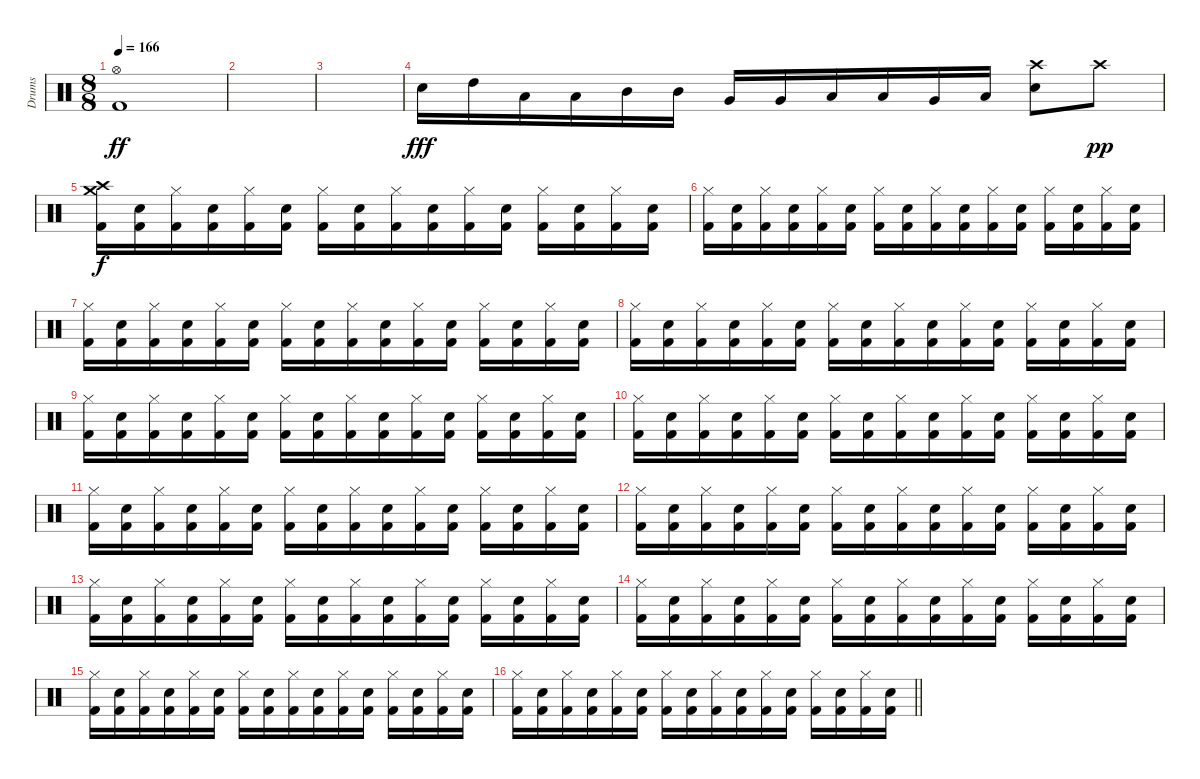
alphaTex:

\track ("Drums" "Drums") {instrument percussion}
\staff {score}
\articulation defaults
\ts (8 8)
\section ("" "")
\tempo 166
\clef neutral
\ks c
("Hi-Hat (open)" "Kick (hit) 2").1{dy ff} |
|
|
"Electric Snare (hit)".16{dy fff} "High Tom (hit)".16 "Low Tom (hit)".16 "Low Tom (hit)".16 "Mid Tom (hit)".16 "Mid Tom (hit)".16 "Very Low Tom (hit)".16 "Very Low Tom (hit)".16 "Low Tom (hit)".16 "Low Tom (hit)".16 "Very Low Tom (hit)".16 "Low Floor Tom (hit)".16 ("Crash high (hit)" "Electric Snare (hit)").8 "Crash high (hit)".8{dy pp} |
("Crash high (hit)" "Crash medium (hit)" "Kick (hit) 2").16{dy f} ("Electric Snare (hit)" "Kick (hit) 2").16 ("Hi-Hat (closed)" "Kick (hit) 2").16 ("Electric Snare (hit)" "Kick (hit) 2").16 ("Hi-Hat (closed)" "Kick (hit) 2").16 ("Electric Snare (hit)" "Kick (hit) 2").16 ("Hi-Hat (closed)" "Kick (hit) 2").16 ("Electric Snare (hit)" "Kick (hit) 2").16 ("Hi-Hat (closed)" "Kick (hit) 2").16 ("Electric Snare (hit)" "Kick (hit) 2").16 ("Hi-Hat (closed)" "Kick (hit) 2").16 ("Electric Snare (hit)" "Kick (hit) 2").16 ("Hi-Hat (closed)" "Kick (hit) 2").16 ("Electric Snare (hit)" "Kick (hit) 2").16 ("Hi-Hat (closed)" "Kick (hit) 2").16 ("Electric Snare (hit)" "Kick (hit) 2").16 |
("Hi-Hat (closed)" "Kick (hit) 2").16 ("Electric Snare (hit)" "Kick (hit) 2").16 ("Hi-Hat (closed)" "Kick (hit) 2").16 ("Electric Snare (hit)" "Kick (hit) 2").16 ("Hi-Hat (closed)" "Kick (hit) 2").16 ("Electric Snare (hit)" "Kick (hit) 2").16 ("Hi-Hat (closed)" "Kick (hit) 2").16 ("Electric Snare (hit)" "Kick (hit) 2").16 ("Hi-Hat (closed)" "Kick (hit) 2").16 ("Electric Snare (hit)" "Kick (hit) 2").16 ("Hi-Hat (closed)" "Kick (hit) 2").16 ("Electric Snare (hit)" "Kick (hit) 2").16 ("Hi-Hat (closed)" "Kick (hit) 2").16 ("Electric Snare (hit)" "Kick (hit) 2").16 ("Hi-Hat (closed)" "Kick (hit) 2").16 ("Electric Snare (hit)" "Kick (hit) 2").16 |
("Hi-Hat (closed)" "Kick (hit) 2").16 ("Electric Snare (hit)" "Kick (hit) 2").16 ("Hi-Hat (closed)" "Kick (hit) 2").16 ("Electric Snare (hit)" "Kick (hit) 2").16 ("Hi-Hat (closed)" "Kick (hit) 2").16 ("Electric Snare (hit)" "Kick (hit) 2").16 ("Hi-Hat (closed)" "Kick (hit) 2").16 ("Electric Snare (hit)" "Kick (hit) 2").16 ("Hi-Hat (closed)" "Kick (hit) 2").16 ("Electric Snare (hit)" "Kick (hit) 2").16 ("Hi-Hat (closed)" "Kick (hit) 2").16 ("Electric Snare (hit)" "Kick (hit) 2").16 ("Hi-Hat (closed)" "Kick (hit) 2").16 ("Electric Snare (hit)" "Kick (hit) 2").16 ("Hi-Hat (closed)" "Kick (hit) 2").16 ("Electric Snare (hit)" "Kick (hit) 2").16 |
("Hi-Hat (closed)" "Kick (hit) 2").16 ("Electric Snare (hit)" "Kick (hit) 2").16 ("Hi-Hat (closed)" "Kick (hit) 2").16 ("Electric Snare (hit)" "Kick (hit) 2").16 ("Hi-Hat (closed)" "Kick (hit) 2").16 ("Electric Snare (hit)" "Kick (hit) 2").16 ("Hi-Hat (closed)" "Kick (hit) 2").16 ("Electric Snare (hit)" "Kick (hit) 2").16 ("Hi-Hat (closed)" "Kick (hit) 2").16 ("Electric Snare (hit)" "Kick (hit) 2").16 ("Hi-Hat (closed)" "Kick (hit) 2").16 ("Electric Snare (hit)" "Kick (hit) 2").16 ("Hi-Hat (closed)" "Kick (hit) 2").16 ("Electric Snare (hit)" "Kick (hit) 2").16 ("Hi-Hat (closed)" "Kick (hit) 2").16 ("Electric Snare (hit)" "Kick (hit) 2").16 |
("Hi-Hat (closed)" "Kick (hit) 2").16 ("Electric Snare (hit)" "Kick (hit) 2").16 ("Hi-Hat (closed)" "Kick (hit) 2").16 ("Electric Snare (hit)" "Kick (hit) 2").16 ("Hi-Hat (closed)" "Kick (hit) 2").16 ("Electric Snare (hit)" "Kick (hit) 2").16 ("Hi-Hat (closed)" "Kick (hit) 2").16 ("Electric Snare (hit)" "Kick (hit) 2").16 ("Hi-Hat (closed)" "Kick (hit) 2").16 ("Electric Snare (hit)" "Kick (hit) 2").16 ("Hi-Hat (closed)" "Kick (hit) 2").16 ("Electric Snare (hit)" "Kick (hit) 2").16 ("Hi-Hat (closed)" "Kick (hit) 2").16 ("Electric Snare (hit)" "Kick (hit) 2").16 ("Hi-Hat (closed)" "Kick (hit) 2").16 ("Electric Snare (hit)" "Kick (hit) 2").16 |
("Hi-Hat (closed)" "Kick (hit) 2").16 ("Electric Snare (hit)" "Kick (hit) 2").16 ("Hi-Hat (closed)" "Kick (hit) 2").16 ("Electric Snare (hit)" "Kick (hit) 2").16 ("Hi-Hat (closed)" "Kick (hit) 2").16 ("Electric Snare (hit)" "Kick (hit) 2").16 ("Hi-Hat (closed)" "Kick (hit) 2").16 ("Electric Snare (hit)" "Kick (hit) 2").16 ("Hi-Hat (closed)" "Kick (hit) 2").16 ("Electric Snare (hit)" "Kick (hit) 2").16 ("Hi-Hat (closed)" "Kick (hit) 2").16 ("Electric Snare (hit)" "Kick (hit) 2").16 ("Hi-Hat (closed)" "Kick (hit) 2").16 ("Electric Snare (hit)" "Kick (hit) 2").16 ("Hi-Hat (closed)" "Kick (hit) 2").16 ("Electric Snare (hit)" "Kick (hit) 2").16 |
("Hi-Hat (closed)" "Kick (hit) 2").16 ("Electric Snare (hit)" "Kick (hit) 2").16 ("Hi-Hat (closed)" "Kick (hit) 2").16 ("Electric Snare (hit)" "Kick (hit) 2").16 ("Hi-Hat (closed)" "Kick (hit) 2").16 ("Electric Snare (hit)" "Kick (hit) 2").16 ("Hi-Hat (closed)" "Kick (hit) 2").16 ("Electric Snare (hit)" "Kick (hit) 2").16 ("Hi-Hat (closed)" "Kick (hit) 2").16 ("Electric Snare (hit)" "Kick (hit) 2").16 ("Hi-Hat (closed)" "Kick (hit) 2").16 ("Electric Snare (hit)" "Kick (hit) 2").16 ("Hi-Hat (closed)" "Kick (hit) 2").16 ("Electric Snare (hit)" "Kick (hit) 2").16 ("Hi-Hat (closed)" "Kick (hit) 2").16 ("Electric Snare (hit)" "Kick (hit) 2").16 |
("Hi-Hat (closed)" "Kick (hit) 2").16 ("Electric Snare (hit)" "Kick (hit) 2").16 ("Hi-Hat (closed)" "Kick (hit) 2").16 ("Electric Snare (hit)" "Kick (hit) 2").16 ("Hi-Hat (closed)" "Kick (hit) 2").16 ("Electric Snare (hit)" "Kick (hit) 2").16 ("Hi-Hat (closed)" "Kick (hit) 2").16 ("Electric Snare (hit)" "Kick (hit) 2").16 ("Hi-Hat (closed)" "Kick (hit) 2").16 ("Electric Snare (hit)" "Kick (hit) 2").16 ("Hi-Hat (closed)" "Kick (hit) 2").16 ("Electric Snare (hit)" "Kick (hit) 2").16 ("Hi-Hat (closed)" "Kick (hit) 2").16 ("Electric Snare (hit)" "Kick (hit) 2").16 ("Hi-Hat (closed)" "Kick (hit) 2").16 ("Electric Snare (hit)" "Kick (hit) 2").16 |
("Hi-Hat (closed)" "Kick (hit) 2").16 ("Electric Snare (hit)" "Kick (hit) 2").16 ("Hi-Hat (closed)" "Kick (hit) 2").16 ("Electric Snare (hit)" "Kick (hit) 2").16 ("Hi-Hat (closed)" "Kick (hit) 2").16 ("Electric Snare (hit)" "Kick (hit) 2").16 ("Hi-Hat (closed)" "Kick (hit) 2").16 ("Electric Snare (hit)" "Kick (hit) 2").16 ("Hi-Hat (closed)" "Kick (hit) 2").16 ("Electric Snare (hit)" "Kick (hit) 2").16 ("Hi-Hat (closed)" "Kick (hit) 2").16 ("Electric Snare (hit)" "Kick (hit) 2").16 ("Hi-Hat (closed)" "Kick (hit) 2").16 ("Electric Snare (hit)" "Kick (hit) 2").16 ("Hi-Hat (closed)" "Kick (hit) 2").16 ("Electric Snare (hit)" "Kick (hit) 2").16 |
("Hi-Hat (closed)" "Kick (hit) 2").16 ("Electric Snare (hit)" "Kick (hit) 2").16 ("Hi-Hat (closed)" "Kick (hit) 2").16 ("Electric Snare (hit)" "Kick (hit) 2").16 ("Hi-Hat (closed)" "Kick (hit) 2").16 ("Electric Snare (hit)" "Kick (hit) 2").16 ("Hi-Hat (closed)" "Kick (hit) 2").16 ("Electric Snare (hit)" "Kick (hit) 2").16 ("Hi-Hat (closed)" "Kick (hit) 2").16 ("Electric Snare (hit)" "Kick (hit) 2").16 ("Hi-Hat (closed)" "Kick (hit) 2").16 ("Electric Snare (hit)" "Kick (hit) 2").16 ("Hi-Hat (closed)" "Kick (hit) 2").16 ("Electric Snare (hit)" "Kick (hit) 2").16 ("Hi-Hat (closed)" "Kick (hit) 2").16 ("Electric Snare (hit)" "Kick (hit) 2").16 |
("Hi-Hat (closed)" "Kick (hit) 2").16 ("Electric Snare (hit)" "Kick (hit) 2").16 ("Hi-Hat (closed)" "Kick (hit) 2").16 ("Electric Snare (hit)" "Kick (hit) 2").16 ("Hi-Hat (closed)" "Kick (hit) 2").16 ("Electric Snare (hit)" "Kick (hit) 2").16 ("Hi-Hat (closed)" "Kick (hit) 2").16 ("Electric Snare (hit)" "Kick (hit) 2").16 ("Hi-Hat (closed)" "Kick (hit) 2").16 ("Electric Snare (hit)" "Kick (hit) 2").16 ("Hi-Hat (closed)" "Kick (hit) 2").16 ("Electric Snare (hit)" "Kick (hit) 2").16 ("Hi-Hat (closed)" "Kick (hit) 2").16 ("Electric Snare (hit)" "Kick (hit) 2").16 ("Hi-Hat (closed)" "Kick (hit) 2").16 ("Electric Snare (hit)" "Kick (hit) 2").16 |
\barLineRight lightlight
("Hi-Hat (closed)" "Kick (hit) 2").16 ("Electric Snare (hit)" "Kick (hit) 2").16 ("Hi-Hat (closed)" "Kick (hit) 2").16 ("Electric Snare (hit)" "Kick (hit) 2").16 ("Hi-Hat (closed)" "Kick (hit) 2").16 ("Electric Snare (hit)" "Kick (hit) 2").16 ("Hi-Hat (closed)" "Kick (hit) 2").16 ("Electric Snare (hit)" "Kick (hit) 2").16 ("Hi-Hat (closed)" "Kick (hit) 2").16 ("Electric Snare (hit)" "Kick (hit) 2").16 ("Hi-Hat (closed)" "Kick (hit) 2").16 ("Electric Snare (hit)" "Kick (hit) 2").16 ("Hi-Hat (closed)" "Kick (hit) 2").16 ("Electric Snare (hit)" "Kick (hit) 2").16 ("Hi-Hat (closed)" "Kick (hit) 2").16 ("Electric Snare (hit)" "Kick (hit) 2").16
